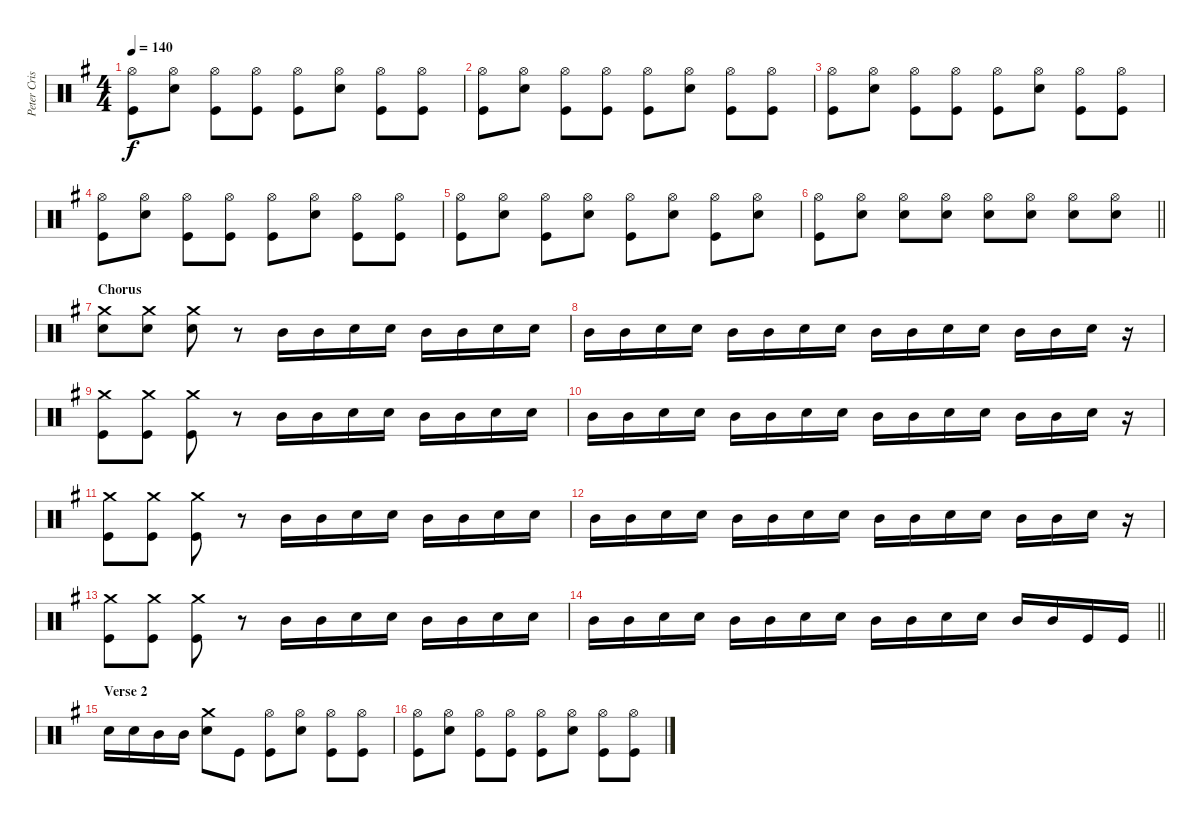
\track ("Peter Criss" "Peter Cris") {instrument percussion}
\staff {score}
\articulation defaults
\ts (4 4)
\tempo 140
\clef neutral
\ks g
("Hi-Hat (open)" "Kick (hit)").8{dy f} ("Hi-Hat (open)" "Snare (hit) 2").8 ("Hi-Hat (open)" "Kick (hit)").8 ("Hi-Hat (open)" "Kick (hit)").8 ("Hi-Hat (open)" "Kick (hit)").8 ("Hi-Hat (open)" "Snare (hit) 2").8 ("Hi-Hat (open)" "Kick (hit)").8 ("Hi-Hat (open)" "Kick (hit)").8 |
("Hi-Hat (open)" "Kick (hit)").8 ("Hi-Hat (open)" "Snare (hit) 2").8 ("Hi-Hat (open)" "Kick (hit)").8 ("Hi-Hat (open)" "Kick (hit)").8 ("Hi-Hat (open)" "Kick (hit)").8 ("Hi-Hat (open)" "Snare (hit) 2").8 ("Hi-Hat (open)" "Kick (hit)").8 ("Hi-Hat (open)" "Kick (hit)").8 |
("Hi-Hat (open)" "Kick (hit)").8 ("Hi-Hat (open)" "Snare (hit) 2").8 ("Hi-Hat (open)" "Kick (hit)").8 ("Hi-Hat (open)" "Kick (hit)").8 ("Hi-Hat (open)" "Kick (hit)").8 ("Hi-Hat (open)" "Snare (hit) 2").8 ("Hi-Hat (open)" "Kick (hit)").8 ("Hi-Hat (open)" "Kick (hit)").8 |
("Hi-Hat (open)" "Kick (hit)").8 ("Hi-Hat (open)" "Snare (hit) 2").8 ("Hi-Hat (open)" "Kick (hit)").8 ("Hi-Hat (open)" "Kick (hit)").8 ("Hi-Hat (open)" "Kick (hit)").8 ("Hi-Hat (open)" "Snare (hit) 2").8 ("Hi-Hat (open)" "Kick (hit)").8 ("Hi-Hat (open)" "Kick (hit)").8 |
("Hi-Hat (open)" "Kick (hit)").8 ("Hi-Hat (open)" "Snare (hit) 2").8 ("Hi-Hat (open)" "Kick (hit)").8 ("Hi-Hat (open)" "Snare (hit) 2").8 ("Hi-Hat (open)" "Kick (hit)").8 ("Hi-Hat (open)" "Snare (hit) 2").8 ("Hi-Hat (open)" "Kick (hit)").8 ("Hi-Hat (open)" "Snare (hit) 2").8 |
\barLineRight lightlight
("Hi-Hat (open)" "Kick (hit)").8 ("Hi-Hat (open)" "Snare (hit) 2").8 ("Hi-Hat (open)" "Snare (hit) 2").8 ("Hi-Hat (open)" "Snare (hit) 2").8 ("Hi-Hat (open)" "Snare (hit) 2").8 ("Hi-Hat (open)" "Snare (hit) 2").8 ("Hi-Hat (open)" "Snare (hit) 2").8 ("Hi-Hat (open)" "Snare (hit) 2").8 |
\section ("" "Chorus")
("Crash medium (hit)" "Snare (hit) 2").8 ("Crash medium (hit)" "Snare (hit) 2").8 ("Crash medium (hit)" "Snare (hit) 2").8 r.8 "Mid Tom (hit)".16 "Mid Tom (hit)".16 "Snare (hit) 2".16 "Snare (hit) 2".16 "Mid Tom (hit)".16 "Mid Tom (hit)".16 "Snare (hit) 2".16 "Snare (hit) 2".16 |
"Mid Tom (hit)".16 "Mid Tom (hit)".16 "Snare (hit) 2".16 "Snare (hit) 2".16 "Mid Tom (hit)".16 "Mid Tom (hit)".16 "Snare (hit) 2".16 "Snare (hit) 2".16 "Mid Tom (hit)".16 "Mid Tom (hit)".16 "Snare (hit) 2".16 "Snare (hit) 2".16 "Mid Tom (hit)".16 "Mid Tom (hit)".16 "Snare (hit) 2".16 r.16 |
("Crash medium (hit)" "Kick (hit)").8 ("Crash medium (hit)" "Kick (hit)").8 ("Crash medium (hit)" "Kick (hit)").8 r.8 "Mid Tom (hit)".16 "Mid Tom (hit)".16 "Snare (hit) 2".16 "Snare (hit) 2".16 "Mid Tom (hit)".16 "Mid Tom (hit)".16 "Snare (hit) 2".16 "Snare (hit) 2".16 |
"Mid Tom (hit)".16 "Mid Tom (hit)".16 "Snare (hit) 2".16 "Snare (hit) 2".16 "Mid Tom (hit)".16 "Mid Tom (hit)".16 "Snare (hit) 2".16 "Snare (hit) 2".16 "Mid Tom (hit)".16 "Mid Tom (hit)".16 "Snare (hit) 2".16 "Snare (hit) 2".16 "Mid Tom (hit)".16 "Mid Tom (hit)".16 "Snare (hit) 2".16 r.16 |
("Crash medium (hit)" "Kick (hit)").8 ("Crash medium (hit)" "Kick (hit)").8 ("Crash medium (hit)" "Kick (hit)").8 r.8 "Mid Tom (hit)".16 "Mid Tom (hit)".16 "Snare (hit) 2".16 "Snare (hit) 2".16 "Mid Tom (hit)".16 "Mid Tom (hit)".16 "Snare (hit) 2".16 "Snare (hit) 2".16 |
"Mid Tom (hit)".16 "Mid Tom (hit)".16 "Snare (hit) 2".16 "Snare (hit) 2".16 "Mid Tom (hit)".16 "Mid Tom (hit)".16 "Snare (hit) 2".16 "Snare (hit) 2".16 "Mid Tom (hit)".16 "Mid Tom (hit)".16 "Snare (hit) 2".16 "Snare (hit) 2".16 "Mid Tom (hit)".16 "Mid Tom (hit)".16 "Snare (hit) 2".16 r.16 |
("Crash medium (hit)" "Kick (hit)").8 ("Crash medium (hit)" "Kick (hit)").8 ("Crash medium (hit)" "Kick (hit)").8 r.8 "Mid Tom (hit)".16 "Mid Tom (hit)".16 "Snare (hit) 2".16 "Snare (hit) 2".16 "Mid Tom (hit)".16 "Mid Tom (hit)".16 "Snare (hit) 2".16 "Snare (hit) 2".16 |
\barLineRight lightlight "Mid Tom (hit)".16 "Mid Tom (hit)".16 "Snare (hit) 2".16 "Snare (hit) 2".16 "Mid Tom (hit)".16 "Mid Tom (hit)".16 "Snare (hit) 2".16 "Snare (hit) 2".16 "Mid Tom (hit)".16 "Mid Tom (hit)".16 "Snare (hit) 2".16 "Snare (hit) 2".16 "Mid Tom (hit)".16 "Mid Tom (hit)".16 "Kick (hit)".16 "Kick (hit)".16
|
\section ("" "Verse 2")
"Snare (hit) 2".16 "Snare (hit) 2".16 "Mid Tom (hit)".16 "Mid Tom (hit)".16 ("Crash medium (hit)" "Snare (hit) 2").8 "Kick (hit)".8 ("Hi-Hat (open)" "Kick (hit)").8 ("Hi-Hat (open)" "Snare (hit) 2").8 ("Hi-Hat (open)" "Kick (hit)").8 ("Hi-Hat (open)" "Kick (hit)").8 |
("Hi-Hat (open)" "Kick (hit)").8 ("Hi-Hat (open)" "Snare (hit) 2").8 ("Hi-Hat (open)" "Kick (hit)").8 ("Hi-Hat (open)" "Kick (hit)").8 ("Hi-Hat (open)" "Kick (hit)").8 ("Hi-Hat (open)" "Snare (hit) 2").8 ("Hi-Hat (open)" "Kick (hit)").8 ("Hi-Hat (open)" "Kick (hit)").8
